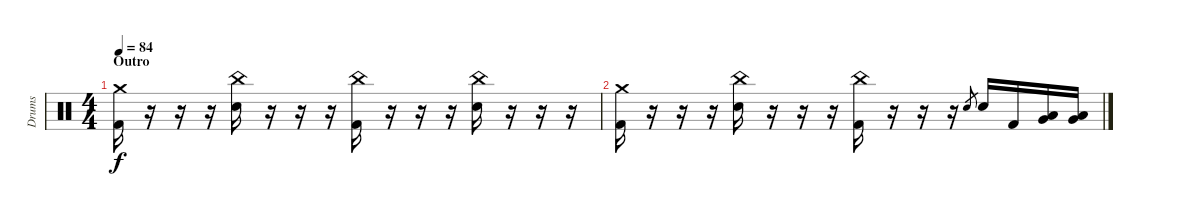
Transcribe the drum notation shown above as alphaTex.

\track ("Drums" "Drums") {instrument percussion}
\staff {score}
\articulation defaults
\ts (4 4)
\section ("" "Outro")
\tempo 84
\clef neutral
\ks c
("Crash medium (hit)" "Kick (hit) 2").16{dy f} r.16 r.16 r.16 ("China (hit)" "Electric Snare (hit)").16 r.16 r.16 r.16 ("China (hit)" "Kick (hit) 2").16 r.16 r.16 r.16 ("China (hit)" "Electric Snare (hit)").16 r.16 r.16 r.16 |
("Crash medium (hit)" "Kick (hit) 2").16 r.16 r.16 r.16 ("China (hit)" "Electric Snare (hit)").16 r.16 r.16 r.16 ("China (hit)" "Kick (hit) 2").16 r.16 r.16 r.16 "Electric Snare (hit)".8{gr} "Electric Snare (hit)".16 "Kick (hit) 2".16 ("Low Tom (hit)" "Very Low Tom (hit)").16 ("Low Tom (hit)" "Very Low Tom (hit)").16
